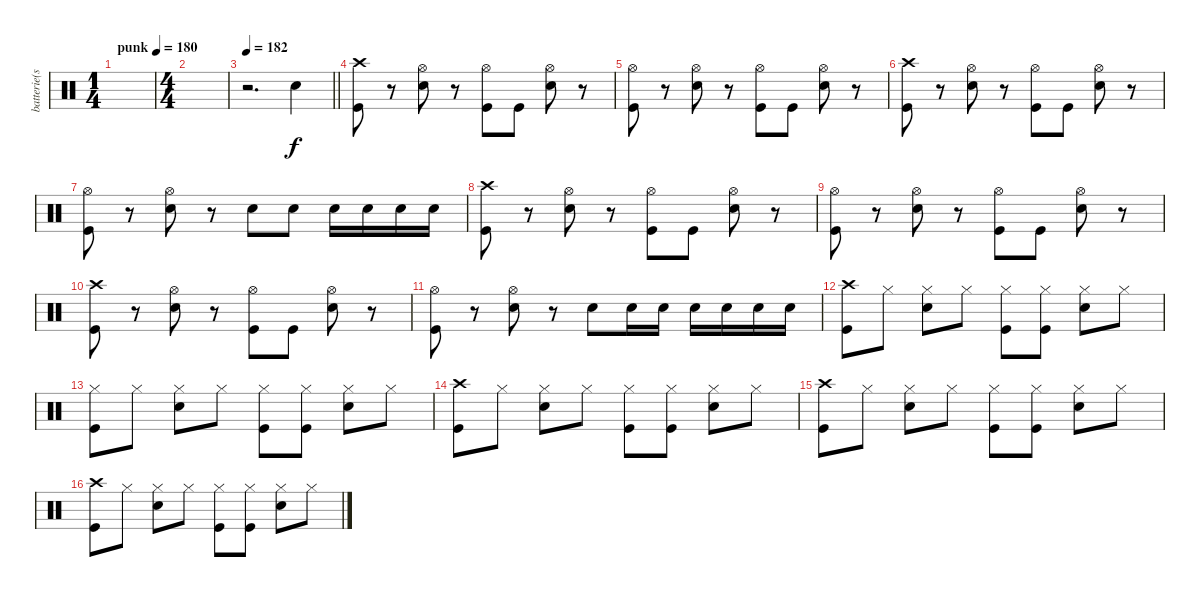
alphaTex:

\track ("batterie(scott)" "batterie(s") {instrument percussion}
\staff {score}
\articulation defaults
\ts (1 4)
\tempo (180 "punk")
\tempo 138
\tempo (180 "punk")
\clef neutral
\ks c
|
\ts (4 4)
|
\tempo 182
\barLineRight lightlight
r.2{d} "Snare (hit) 2".4 |
("Crash high (hit)" "Kick (hit)").8 r.8 ("Hi-Hat (open)" "Snare (hit) 2").8 r.8 ("Hi-Hat (open)" "Kick (hit)").8 "Kick (hit)".8 ("Hi-Hat (open)" "Snare (hit) 2").8 r.8 |
("Hi-Hat (open)" "Kick (hit)").8 r.8 ("Hi-Hat (open)" "Snare (hit) 2").8 r.8 ("Hi-Hat (open)" "Kick (hit)").8 "Kick (hit)".8 ("Hi-Hat (open)" "Snare (hit) 2").8 r.8 |
("Crash high (hit)" "Kick (hit)").8 r.8 ("Hi-Hat (open)" "Snare (hit) 2").8 r.8 ("Hi-Hat (open)" "Kick (hit)").8 "Kick (hit)".8 ("Hi-Hat (open)" "Snare (hit) 2").8 r.8 |
("Hi-Hat (open)" "Kick (hit)").8 r.8 ("Hi-Hat (open)" "Snare (hit) 2").8 r.8 "Snare (hit) 2".8 "Snare (hit) 2".8 "Snare (hit) 2".16 "Snare (hit) 2".16 "Snare (hit) 2".16 "Snare (hit) 2".16 |
("Crash high (hit)" "Kick (hit)").8 r.8 ("Hi-Hat (open)" "Snare (hit) 2").8 r.8 ("Hi-Hat (open)" "Kick (hit)").8 "Kick (hit)".8 ("Hi-Hat (open)" "Snare (hit) 2").8 r.8 |
("Hi-Hat (open)" "Kick (hit)").8 r.8 ("Hi-Hat (open)" "Snare (hit) 2").8 r.8 ("Hi-Hat (open)" "Kick (hit)").8 "Kick (hit)".8 ("Hi-Hat (open)" "Snare (hit) 2").8 r.8 |
("Crash high (hit)" "Kick (hit)").8 r.8 ("Hi-Hat (open)" "Snare (hit) 2").8 r.8 ("Hi-Hat (open)" "Kick (hit)").8 "Kick (hit)".8 ("Hi-Hat (open)" "Snare (hit) 2").8 r.8 |
("Hi-Hat (open)" "Kick (hit)").8 r.8 ("Hi-Hat (open)" "Snare (hit) 2").8 r.8 "Snare (hit) 2".8 "Snare (hit) 2".16 "Snare (hit) 2".16 "Snare (hit) 2".16 "Snare (hit) 2".16 "Snare (hit) 2".16 "Snare (hit) 2".16 |
("Crash high (hit)" "Kick (hit)").8 "Hi-Hat (closed)".8 ("Hi-Hat (closed)" "Snare (hit) 2").8 "Hi-Hat (closed)".8 ("Hi-Hat (closed)" "Kick (hit)").8 ("Hi-Hat (closed)" "Kick (hit)").8 ("Hi-Hat (closed)" "Snare (hit) 2").8 "Hi-Hat (closed)".8 |
("Hi-Hat (closed)" "Kick (hit)").8 "Hi-Hat (closed)".8 ("Hi-Hat (closed)" "Snare (hit) 2").8 "Hi-Hat (closed)".8 ("Hi-Hat (closed)" "Kick (hit)").8 ("Hi-Hat (closed)" "Kick (hit)").8 ("Hi-Hat (closed)" "Snare (hit) 2").8 "Hi-Hat (closed)".8 |
("Crash high (hit)" "Kick (hit)").8 "Hi-Hat (closed)".8 ("Hi-Hat (closed)" "Snare (hit) 2").8 "Hi-Hat (closed)".8 ("Hi-Hat (closed)" "Kick (hit)").8 ("Hi-Hat (closed)" "Kick (hit)").8 ("Hi-Hat (closed)" "Snare (hit) 2").8 "Hi-Hat (closed)".8 |
("Crash high (hit)" "Kick (hit)").8 "Hi-Hat (closed)".8 ("Hi-Hat (closed)" "Snare (hit) 2").8 "Hi-Hat (closed)".8 ("Hi-Hat (closed)" "Kick (hit)").8 ("Hi-Hat (closed)" "Kick (hit)").8 ("Hi-Hat (closed)" "Snare (hit) 2").8 "Hi-Hat (closed)".8 |
("Crash high (hit)" "Kick (hit)").8 "Hi-Hat (closed)".8 ("Hi-Hat (closed)" "Snare (hit) 2").8 "Hi-Hat (closed)".8 ("Hi-Hat (closed)" "Kick (hit)").8 ("Hi-Hat (closed)" "Kick (hit)").8 ("Hi-Hat (closed)" "Snare (hit) 2").8 "Hi-Hat (closed)".8
